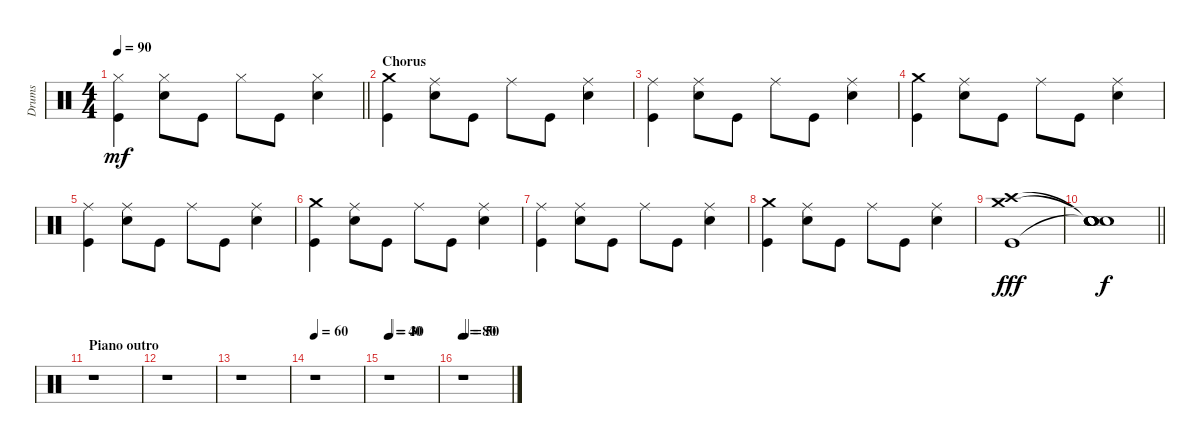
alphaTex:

\track ("Drums" "Drums") {instrument percussion}
\staff {score}
\articulation defaults
\ts (4 4)
\tempo 90
\clef neutral
\barLineRight lightlight
\ks c
("Hi-Hat (closed)" "Kick (hit)").4{dy mf} ("Hi-Hat (closed)" "Electric Snare (hit)").8 "Kick (hit)".8 "Hi-Hat (closed)".8 "Kick (hit)".8 ("Hi-Hat (closed)" "Electric Snare (hit)").4 |
\section ("" "Chorus")
("Crash medium (hit)" "Kick (hit)").4 ("Ride (middle)" "Electric Snare (hit)").8 "Kick (hit)".8 "Ride (middle)".8 "Kick (hit)".8 ("Ride (middle)" "Electric Snare (hit)").4 |
("Ride (middle)" "Kick (hit)").4 ("Ride (middle)" "Electric Snare (hit)").8 "Kick (hit)".8 "Ride (middle)".8 "Kick (hit)".8 ("Ride (middle)" "Electric Snare (hit)").4 |
("Crash medium (hit)" "Kick (hit)").4 ("Ride (middle)" "Electric Snare (hit)").8 "Kick (hit)".8 "Ride (middle)".8 "Kick (hit)".8 ("Ride (middle)" "Electric Snare (hit)").4 |
("Ride (middle)" "Kick (hit)").4 ("Ride (middle)" "Electric Snare (hit)").8 "Kick (hit)".8 "Ride (middle)".8 "Kick (hit)".8 ("Ride (middle)" "Electric Snare (hit)").4 |
("Crash medium (hit)" "Kick (hit)").4 ("Ride (middle)" "Electric Snare (hit)").8 "Kick (hit)".8 "Ride (middle)".8 "Kick (hit)".8 ("Ride (middle)" "Electric Snare (hit)").4 |
("Ride (middle)" "Kick (hit)").4 ("Ride (middle)" "Electric Snare (hit)").8 "Kick (hit)".8 "Ride (middle)".8 "Kick (hit)".8 ("Ride (middle)" "Electric Snare (hit)").4 |
("Crash medium (hit)" "Kick (hit)").4 ("Ride (middle)" "Electric Snare (hit)").8 "Kick (hit)".8 "Ride (middle)".8 "Kick (hit)".8 ("Ride (middle)" "Electric Snare (hit)").4 |
("Crash medium (hit)" "Crash high (hit)" "Kick (hit)").1{dy fff} |
\barLineRight lightlight
("Snare (hit)"{t} "Snare (hit)"{t} "Snare (hit)"{t} "Snare (hit)" "Snare (hit)" "Snare (hit)").1{dy f} |
\section ("" "Piano outro")
r.1 |
r.1 |
r.1 |
\tempo 60
r.1 |
\tempo 40
\tempo (30 0.03125)
r.1 |
\tempo 80
\tempo (50 0.0625)
r.1
